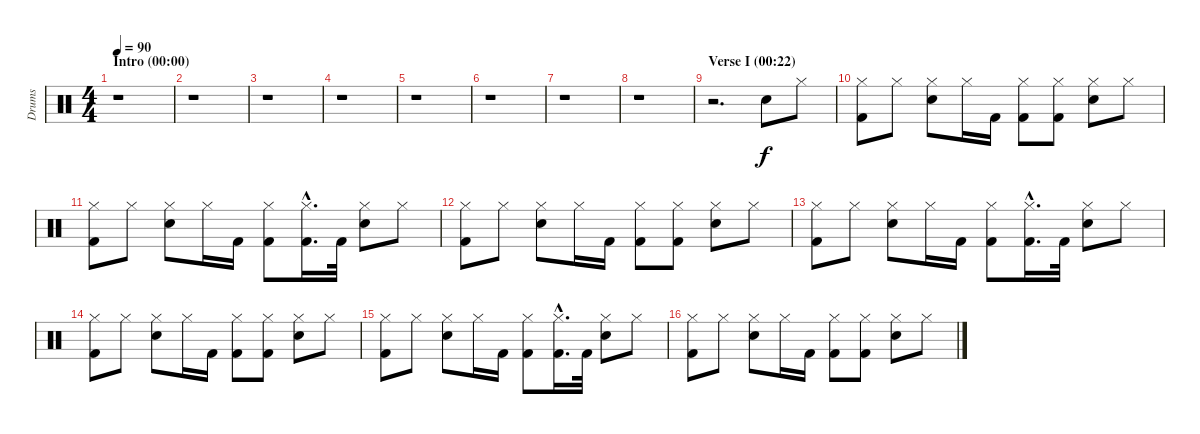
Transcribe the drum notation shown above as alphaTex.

\track ("Drums" "Drums") {instrument percussion}
\staff {score}
\articulation defaults
\ts (4 4)
\section ("" "Intro (00:00)")
\tempo 90
\clef neutral
\ks c
r.1{dy f} |
r.1 |
r.1 |
r.1 |
r.1 |
r.1 |
r.1 |
r.1 |
\section ("" "Verse I (00:22)")
r.2{d} "Electric Snare (hit)".8 "Hi-Hat (closed)".8 |
("Hi-Hat (closed)" "Kick (hit) 2").8 "Hi-Hat (closed)".8 ("Hi-Hat (closed)" "Electric Snare (hit)").8 "Hi-Hat (closed)".16 "Kick (hit) 2".16 ("Hi-Hat (closed)" "Kick (hit) 2").8 ("Hi-Hat (closed)" "Kick (hit) 2").8 ("Hi-Hat (closed)" "Electric Snare (hit)").8 "Hi-Hat (closed)".8 |
("Hi-Hat (closed)" "Kick (hit) 2").8 "Hi-Hat (closed)".8 ("Hi-Hat (closed)" "Electric Snare (hit)").8 "Hi-Hat (closed)".16 "Kick (hit) 2".16 ("Hi-Hat (closed)" "Kick (hit) 2").8 ("Hi-Hat (closed)"{hac} "Kick (hit) 2"{hac}).16{d} "Kick (hit) 2".32 ("Hi-Hat (closed)" "Electric Snare (hit)").8 "Hi-Hat (closed)".8 |
("Hi-Hat (closed)" "Kick (hit) 2").8 "Hi-Hat (closed)".8 ("Hi-Hat (closed)" "Electric Snare (hit)").8 "Hi-Hat (closed)".16 "Kick (hit) 2".16 ("Hi-Hat (closed)" "Kick (hit) 2").8 ("Hi-Hat (closed)" "Kick (hit) 2").8 ("Hi-Hat (closed)" "Electric Snare (hit)").8 "Hi-Hat (closed)".8 |
("Hi-Hat (closed)" "Kick (hit) 2").8 "Hi-Hat (closed)".8 ("Hi-Hat (closed)" "Electric Snare (hit)").8 "Hi-Hat (closed)".16 "Kick (hit) 2".16 ("Hi-Hat (closed)" "Kick (hit) 2").8 ("Hi-Hat (closed)"{hac} "Kick (hit) 2"{hac}).16{d} "Kick (hit) 2".32 ("Hi-Hat (closed)" "Electric Snare (hit)").8 "Hi-Hat (closed)".8 |
("Hi-Hat (closed)" "Kick (hit) 2").8 "Hi-Hat (closed)".8 ("Hi-Hat (closed)" "Electric Snare (hit)").8 "Hi-Hat (closed)".16 "Kick (hit) 2".16 ("Hi-Hat (closed)" "Kick (hit) 2").8 ("Hi-Hat (closed)" "Kick (hit) 2").8 ("Hi-Hat (closed)" "Electric Snare (hit)").8 "Hi-Hat (closed)".8 |
("Hi-Hat (closed)" "Kick (hit) 2").8 "Hi-Hat (closed)".8 ("Hi-Hat (closed)" "Electric Snare (hit)").8 "Hi-Hat (closed)".16 "Kick (hit) 2".16 ("Hi-Hat (closed)" "Kick (hit) 2").8 ("Hi-Hat (closed)"{hac} "Kick (hit) 2"{hac}).16{d} "Kick (hit) 2".32 ("Hi-Hat (closed)" "Electric Snare (hit)").8 "Hi-Hat (closed)".8 |
("Hi-Hat (closed)" "Kick (hit) 2").8 "Hi-Hat (closed)".8 ("Hi-Hat (closed)" "Electric Snare (hit)").8 "Hi-Hat (closed)".16 "Kick (hit) 2".16 ("Hi-Hat (closed)" "Kick (hit) 2").8 ("Hi-Hat (closed)" "Kick (hit) 2").8 ("Hi-Hat (closed)" "Electric Snare (hit)").8 "Hi-Hat (closed)".8
